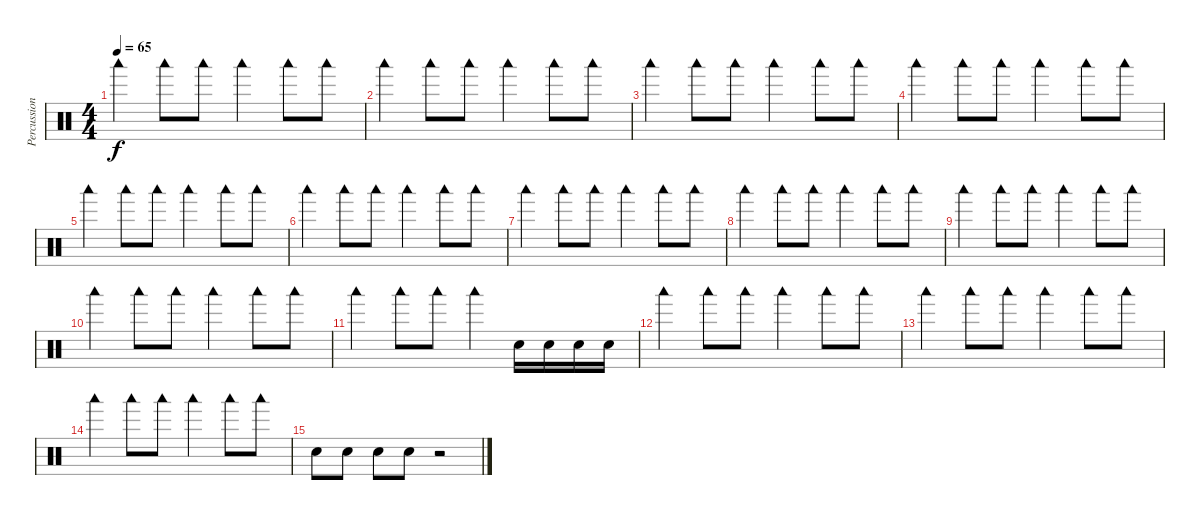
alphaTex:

\track ("Percussions" "Percussion") {instrument percussion}
\staff {score}
\articulation defaults
\ts (4 4)
\tempo 65
\clef neutral
\ks c "Woodblock low (hit)".4{dy f} "Woodblock low (hit)".8 "Woodblock low (hit)".8 "Woodblock low (hit)".4 "Woodblock low (hit)".8 "Woodblock low (hit)".8
|
"Woodblock low (hit)".4 "Woodblock low (hit)".8 "Woodblock low (hit)".8 "Woodblock low (hit)".4 "Woodblock low (hit)".8 "Woodblock low (hit)".8 |
"Woodblock low (hit)".4 "Woodblock low (hit)".8 "Woodblock low (hit)".8 "Woodblock low (hit)".4 "Woodblock low (hit)".8 "Woodblock low (hit)".8 |
"Woodblock low (hit)".4 "Woodblock low (hit)".8 "Woodblock low (hit)".8 "Woodblock low (hit)".4 "Woodblock low (hit)".8 "Woodblock low (hit)".8 |
"Woodblock low (hit)".4 "Woodblock low (hit)".8 "Woodblock low (hit)".8 "Woodblock low (hit)".4 "Woodblock low (hit)".8 "Woodblock low (hit)".8 |
"Woodblock low (hit)".4 "Woodblock low (hit)".8 "Woodblock low (hit)".8 "Woodblock low (hit)".4 "Woodblock low (hit)".8 "Woodblock low (hit)".8 |
"Woodblock low (hit)".4 "Woodblock low (hit)".8 "Woodblock low (hit)".8 "Woodblock low (hit)".4 "Woodblock low (hit)".8 "Woodblock low (hit)".8 |
"Woodblock low (hit)".4 "Woodblock low (hit)".8 "Woodblock low (hit)".8 "Woodblock low (hit)".4 "Woodblock low (hit)".8 "Woodblock low (hit)".8 |
"Woodblock low (hit)".4 "Woodblock low (hit)".8 "Woodblock low (hit)".8 "Woodblock low (hit)".4 "Woodblock low (hit)".8 "Woodblock low (hit)".8 |
"Woodblock low (hit)".4 "Woodblock low (hit)".8 "Woodblock low (hit)".8 "Woodblock low (hit)".4 "Woodblock low (hit)".8 "Woodblock low (hit)".8 |
"Woodblock low (hit)".4 "Woodblock low (hit)".8 "Woodblock low (hit)".8 "Woodblock low (hit)".4 "Electric Snare (hit)".16 "Electric Snare (hit)".16 "Electric Snare (hit)".16 "Electric Snare (hit)".16 |
"Woodblock low (hit)".4 "Woodblock low (hit)".8 "Woodblock low (hit)".8 "Woodblock low (hit)".4 "Woodblock low (hit)".8 "Woodblock low (hit)".8 |
"Woodblock low (hit)".4 "Woodblock low (hit)".8 "Woodblock low (hit)".8 "Woodblock low (hit)".4 "Woodblock low (hit)".8 "Woodblock low (hit)".8 |
"Woodblock low (hit)".4 "Woodblock low (hit)".8 "Woodblock low (hit)".8 "Woodblock low (hit)".4 "Woodblock low (hit)".8 "Woodblock low (hit)".8 |
"Electric Snare (hit)".8 "Electric Snare (hit)".8 "Electric Snare (hit)".8 "Electric Snare (hit)".8 r.2
